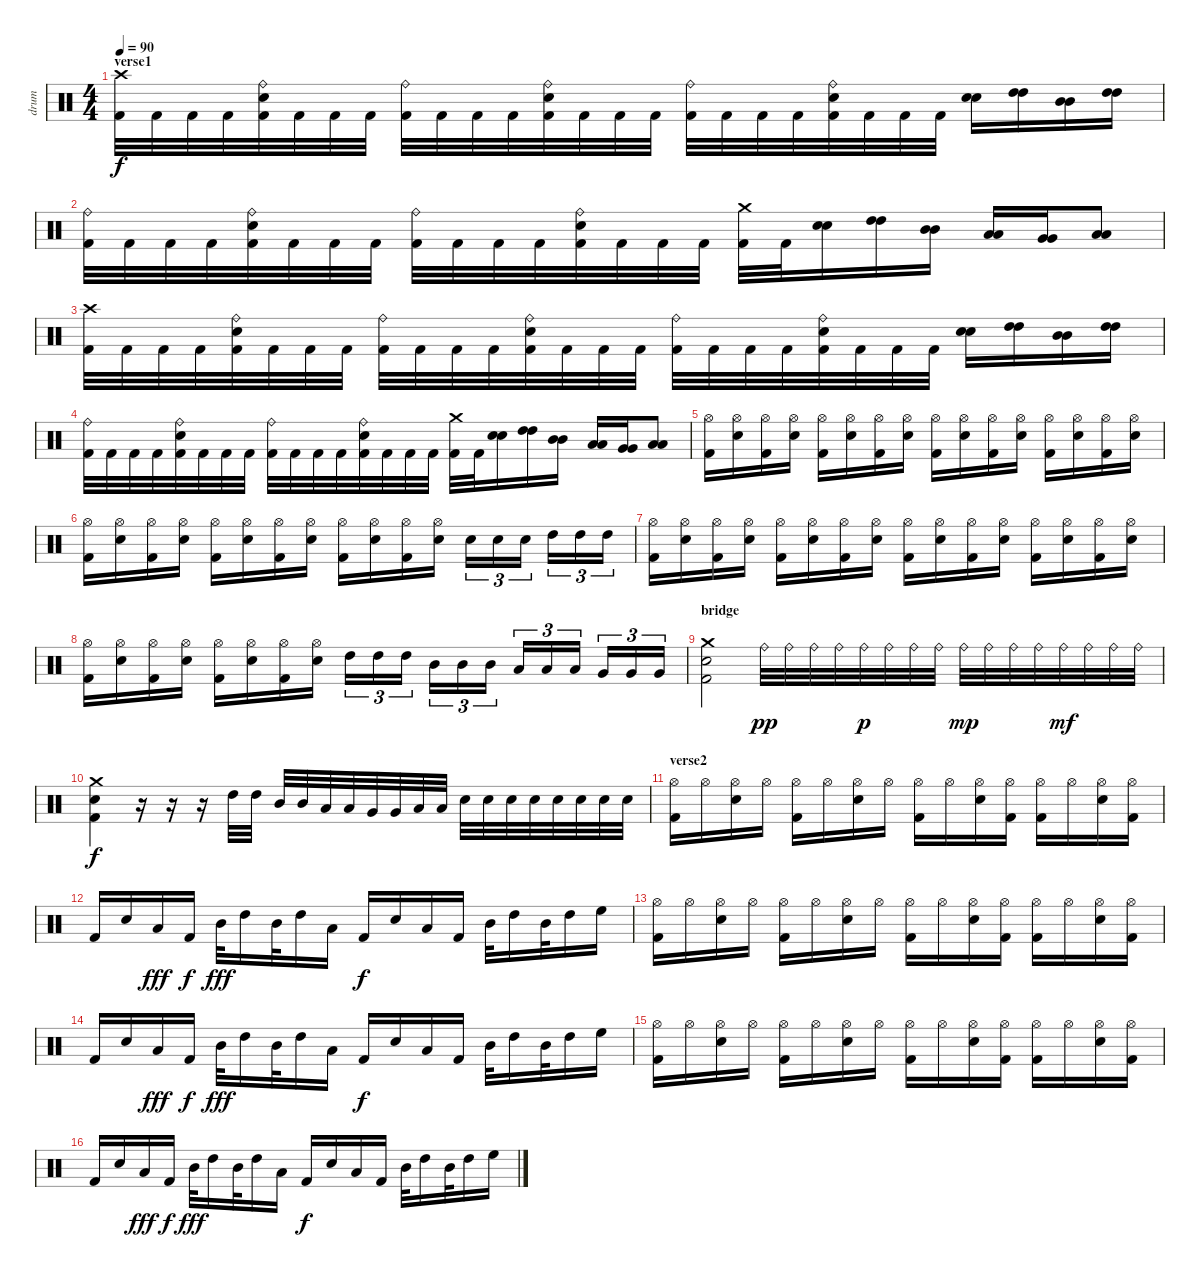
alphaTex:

\track ("drum" "drum") {instrument percussion}
\staff {score}
\articulation defaults
\ts (4 4)
\section ("" "verse1")
\tempo 90
\clef neutral
\ks c
("Crash high (hit)" "Kick (hit) 2").32{dy f} "Kick (hit) 2".32 "Kick (hit) 2".32 "Kick (hit) 2".32 ("Ride (bell)" "Electric Snare (hit)" "Kick (hit) 2").32 "Kick (hit) 2".32 "Kick (hit) 2".32 "Kick (hit) 2".32 ("Ride (bell)" "Kick (hit) 2").32 "Kick (hit) 2".32 "Kick (hit) 2".32 "Kick (hit) 2".32 ("Ride (bell)" "Electric Snare (hit)" "Kick (hit) 2").32 "Kick (hit) 2".32 "Kick (hit) 2".32 "Kick (hit) 2".32 ("Ride (bell)" "Kick (hit) 2").32 "Kick (hit) 2".32 "Kick (hit) 2".32 "Kick (hit) 2".32 ("Ride (bell)" "Electric Snare (hit)" "Kick (hit) 2").32 "Kick (hit) 2".32 "Kick (hit) 2".32 "Kick (hit) 2".32 ("Electric Snare (hit)" "Electric Snare (hit)").16 ("High Tom (hit)" "High Tom (hit)").16 ("Mid Tom (hit)" "Mid Tom (hit)").16 ("High Tom (hit)" "High Tom (hit)").16 |
("Ride (bell)" "Kick (hit) 2").32 "Kick (hit) 2".32 "Kick (hit) 2".32 "Kick (hit) 2".32 ("Ride (bell)" "Electric Snare (hit)" "Kick (hit) 2").32 "Kick (hit) 2".32 "Kick (hit) 2".32 "Kick (hit) 2".32 ("Ride (bell)" "Kick (hit) 2").32 "Kick (hit) 2".32 "Kick (hit) 2".32 "Kick (hit) 2".32 ("Ride (bell)" "Electric Snare (hit)" "Kick (hit) 2").32 "Kick (hit) 2".32 "Kick (hit) 2".32 "Kick (hit) 2".32 ("Crash medium (hit)" "Kick (hit) 2").32 "Kick (hit) 2".32 ("Electric Snare (hit)" "Electric Snare (hit)").16 ("High Tom (hit)" "High Tom (hit)").16 ("Mid Tom (hit)" "Mid Tom (hit)").16 ("Low Tom (hit)" "Low Tom (hit)").16 ("Very Low Tom (hit)" "Very Low Tom (hit)").16 ("Low Floor Tom (hit)" "Low Floor Tom (hit)").8 |
("Crash high (hit)" "Kick (hit) 2").32 "Kick (hit) 2".32 "Kick (hit) 2".32 "Kick (hit) 2".32 ("Ride (bell)" "Electric Snare (hit)" "Kick (hit) 2").32 "Kick (hit) 2".32 "Kick (hit) 2".32 "Kick (hit) 2".32 ("Ride (bell)" "Kick (hit) 2").32 "Kick (hit) 2".32 "Kick (hit) 2".32 "Kick (hit) 2".32 ("Ride (bell)" "Electric Snare (hit)" "Kick (hit) 2").32 "Kick (hit) 2".32 "Kick (hit) 2".32 "Kick (hit) 2".32 ("Ride (bell)" "Kick (hit) 2").32 "Kick (hit) 2".32 "Kick (hit) 2".32 "Kick (hit) 2".32 ("Ride (bell)" "Electric Snare (hit)" "Kick (hit) 2").32 "Kick (hit) 2".32 "Kick (hit) 2".32 "Kick (hit) 2".32 ("Electric Snare (hit)" "Electric Snare (hit)").16 ("High Tom (hit)" "High Tom (hit)").16 ("Mid Tom (hit)" "Mid Tom (hit)").16 ("High Tom (hit)" "High Tom (hit)").16 |
("Ride (bell)" "Kick (hit) 2").32 "Kick (hit) 2".32 "Kick (hit) 2".32 "Kick (hit) 2".32 ("Ride (bell)" "Electric Snare (hit)" "Kick (hit) 2").32 "Kick (hit) 2".32 "Kick (hit) 2".32 "Kick (hit) 2".32 ("Ride (bell)" "Kick (hit) 2").32 "Kick (hit) 2".32 "Kick (hit) 2".32 "Kick (hit) 2".32 ("Ride (bell)" "Electric Snare (hit)" "Kick (hit) 2").32 "Kick (hit) 2".32 "Kick (hit) 2".32 "Kick (hit) 2".32 ("Crash medium (hit)" "Kick (hit) 2").32 "Kick (hit) 2".32 ("Electric Snare (hit)" "Electric Snare (hit)").16 ("High Tom (hit)" "High Tom (hit)").16 ("Mid Tom (hit)" "Mid Tom (hit)").16 ("Low Tom (hit)" "Low Tom (hit)").16 ("Very Low Tom (hit)" "Very Low Tom (hit)").16 ("Low Floor Tom (hit)" "Low Floor Tom (hit)").8 |
("Hi-Hat (open)" "Kick (hit) 2").16 ("Hi-Hat (open)" "Electric Snare (hit)").16 ("Hi-Hat (open)" "Kick (hit) 2").16 ("Hi-Hat (open)" "Electric Snare (hit)").16 ("Hi-Hat (open)" "Kick (hit) 2").16 ("Hi-Hat (open)" "Electric Snare (hit)").16 ("Hi-Hat (open)" "Kick (hit) 2").16 ("Hi-Hat (open)" "Electric Snare (hit)").16 ("Hi-Hat (open)" "Kick (hit) 2").16 ("Hi-Hat (open)" "Electric Snare (hit)").16 ("Hi-Hat (open)" "Kick (hit) 2").16 ("Hi-Hat (open)" "Electric Snare (hit)").16 ("Hi-Hat (open)" "Kick (hit) 2").16 ("Hi-Hat (open)" "Electric Snare (hit)").16 ("Hi-Hat (open)" "Kick (hit) 2").16 ("Hi-Hat (open)" "Electric Snare (hit)").16 |
("Hi-Hat (open)" "Kick (hit) 2").16 ("Hi-Hat (open)" "Electric Snare (hit)").16 ("Hi-Hat (open)" "Kick (hit) 2").16 ("Hi-Hat (open)" "Electric Snare (hit)").16 ("Hi-Hat (open)" "Kick (hit) 2").16 ("Hi-Hat (open)" "Electric Snare (hit)").16 ("Hi-Hat (open)" "Kick (hit) 2").16 ("Hi-Hat (open)" "Electric Snare (hit)").16 ("Hi-Hat (open)" "Kick (hit) 2").16 ("Hi-Hat (open)" "Electric Snare (hit)").16 ("Hi-Hat (open)" "Kick (hit) 2").16 ("Hi-Hat (open)" "Electric Snare (hit)").16 "Electric Snare (hit)".16{tu (3 2)} "Electric Snare (hit)".16{tu (3 2)} "Electric Snare (hit)".16{tu (3 2)} "High Tom (hit)".16{tu (3 2)} "High Tom (hit)".16{tu (3 2)} "High Tom (hit)".16{tu (3 2)} |
("Hi-Hat (open)" "Kick (hit) 2").16 ("Hi-Hat (open)" "Electric Snare (hit)").16 ("Hi-Hat (open)" "Kick (hit) 2").16 ("Hi-Hat (open)" "Electric Snare (hit)").16 ("Hi-Hat (open)" "Kick (hit) 2").16 ("Hi-Hat (open)" "Electric Snare (hit)").16 ("Hi-Hat (open)" "Kick (hit) 2").16 ("Hi-Hat (open)" "Electric Snare (hit)").16 ("Hi-Hat (open)" "Kick (hit) 2").16 ("Hi-Hat (open)" "Electric Snare (hit)").16 ("Hi-Hat (open)" "Kick (hit) 2").16 ("Hi-Hat (open)" "Electric Snare (hit)").16 ("Hi-Hat (open)" "Kick (hit) 2").16 ("Hi-Hat (open)" "Electric Snare (hit)").16 ("Hi-Hat (open)" "Kick (hit) 2").16 ("Hi-Hat (open)" "Electric Snare (hit)").16 |
("Hi-Hat (open)" "Kick (hit) 2").16 ("Hi-Hat (open)" "Electric Snare (hit)").16 ("Hi-Hat (open)" "Kick (hit) 2").16 ("Hi-Hat (open)" "Electric Snare (hit)").16 ("Hi-Hat (open)" "Kick (hit) 2").16 ("Hi-Hat (open)" "Electric Snare (hit)").16 ("Hi-Hat (open)" "Kick (hit) 2").16 ("Hi-Hat (open)" "Electric Snare (hit)").16 "High Tom (hit)".16{tu (3 2)} "High Tom (hit)".16{tu (3 2)} "High Tom (hit)".16{tu (3 2)} "Mid Tom (hit)".16{tu (3 2)} "Mid Tom (hit)".16{tu (3 2)} "Mid Tom (hit)".16{tu (3 2)} "Low Tom (hit)".16{tu (3 2)} "Low Tom (hit)".16{tu (3 2)} "Low Tom (hit)".16{tu (3 2)} "Very Low Tom (hit)".16{tu (3 2)} "Very Low Tom (hit)".16{tu (3 2)} "Very Low Tom (hit)".16{tu (3 2)} |
\section ("" "bridge")
("Crash medium (hit)" "Electric Snare (hit)" "Kick (hit) 2").2 "Ride (bell)".32{dy pp} "Ride (bell)".32 "Ride (bell)".32 "Ride (bell)".32 "Ride (bell)".32{dy p} "Ride (bell)".32 "Ride (bell)".32 "Ride (bell)".32 "Ride (bell)".32{dy mp} "Ride (bell)".32 "Ride (bell)".32 "Ride (bell)".32 "Ride (bell)".32{dy mf} "Ride (bell)".32 "Ride (bell)".32 "Ride (bell)".32 |
("Crash medium (hit)" "Electric Snare (hit)" "Kick (hit) 2").4{dy f} r.16 r.16 r.16 "High Tom (hit)".32 "High Tom (hit)".32 "Mid Tom (hit)".32 "Mid Tom (hit)".32 "Low Tom (hit)".32 "Low Tom (hit)".32 "Very Low Tom (hit)".32 "Very Low Tom (hit)".32 "Low Floor Tom (hit)".32 "Low Floor Tom (hit)".32 "Electric Snare (hit)".32 "Electric Snare (hit)".32 "Electric Snare (hit)".32 "Electric Snare (hit)".32 "Electric Snare (hit)".32 "Electric Snare (hit)".32 "Electric Snare (hit)".32 "Electric Snare (hit)".32 |
\section ("" "verse2")
("Hi-Hat (open)" "Kick (hit) 2").16 "Hi-Hat (open)".16 ("Hi-Hat (open)" "Electric Snare (hit)").16 "Hi-Hat (open)".16 ("Hi-Hat (open)" "Kick (hit) 2").16 "Hi-Hat (open)".16 ("Hi-Hat (open)" "Electric Snare (hit)").16 "Hi-Hat (open)".16 ("Hi-Hat (open)" "Kick (hit) 2").16 "Hi-Hat (open)".16 ("Hi-Hat (open)" "Electric Snare (hit)").16 ("Hi-Hat (open)" "Kick (hit) 2").16 ("Hi-Hat (open)" "Kick (hit) 2").16 "Hi-Hat (open)".16 ("Hi-Hat (open)" "Electric Snare (hit)").16 ("Hi-Hat (open)" "Kick (hit) 2").16 |
"Kick (hit) 2".16 "Electric Snare (hit)".16 "Low Tom (hit)".16{dy fff} "Kick (hit) 2".16{dy f} "Mid Tom (hit)".32{dy fff} "High Tom (hit)".16 "Mid Tom (hit)".32 "High Tom (hit)".16 "Low Tom (hit)".16 "Kick (hit) 2".16{dy f} "Electric Snare (hit)".16 "Low Tom (hit)".16 "Kick (hit) 2".16 "Mid Tom (hit)".32 "High Tom (hit)".16 "Mid Tom (hit)".32 "High Tom (hit)".16 "High Floor Tom (hit)".16 |
("Hi-Hat (open)" "Kick (hit) 2").16 "Hi-Hat (open)".16 ("Hi-Hat (open)" "Electric Snare (hit)").16 "Hi-Hat (open)".16 ("Hi-Hat (open)" "Kick (hit) 2").16 "Hi-Hat (open)".16 ("Hi-Hat (open)" "Electric Snare (hit)").16 "Hi-Hat (open)".16 ("Hi-Hat (open)" "Kick (hit) 2").16 "Hi-Hat (open)".16 ("Hi-Hat (open)" "Electric Snare (hit)").16 ("Hi-Hat (open)" "Kick (hit) 2").16 ("Hi-Hat (open)" "Kick (hit) 2").16 "Hi-Hat (open)".16 ("Hi-Hat (open)" "Electric Snare (hit)").16 ("Hi-Hat (open)" "Kick (hit) 2").16 |
"Kick (hit) 2".16 "Electric Snare (hit)".16 "Low Tom (hit)".16{dy fff} "Kick (hit) 2".16{dy f} "Mid Tom (hit)".32{dy fff} "High Tom (hit)".16 "Mid Tom (hit)".32 "High Tom (hit)".16 "Low Tom (hit)".16 "Kick (hit) 2".16{dy f} "Electric Snare (hit)".16 "Low Tom (hit)".16 "Kick (hit) 2".16 "Mid Tom (hit)".32 "High Tom (hit)".16 "Mid Tom (hit)".32 "High Tom (hit)".16 "High Floor Tom (hit)".16 |
("Hi-Hat (open)" "Kick (hit) 2").16 "Hi-Hat (open)".16 ("Hi-Hat (open)" "Electric Snare (hit)").16 "Hi-Hat (open)".16 ("Hi-Hat (open)" "Kick (hit) 2").16 "Hi-Hat (open)".16 ("Hi-Hat (open)" "Electric Snare (hit)").16 "Hi-Hat (open)".16 ("Hi-Hat (open)" "Kick (hit) 2").16 "Hi-Hat (open)".16 ("Hi-Hat (open)" "Electric Snare (hit)").16 ("Hi-Hat (open)" "Kick (hit) 2").16 ("Hi-Hat (open)" "Kick (hit) 2").16 "Hi-Hat (open)".16 ("Hi-Hat (open)" "Electric Snare (hit)").16 ("Hi-Hat (open)" "Kick (hit) 2").16 |
"Kick (hit) 2".16 "Electric Snare (hit)".16 "Low Tom (hit)".16{dy fff} "Kick (hit) 2".16{dy f} "Mid Tom (hit)".32{dy fff} "High Tom (hit)".16 "Mid Tom (hit)".32 "High Tom (hit)".16 "Low Tom (hit)".16 "Kick (hit) 2".16{dy f} "Electric Snare (hit)".16 "Low Tom (hit)".16 "Kick (hit) 2".16 "Mid Tom (hit)".32 "High Tom (hit)".16 "Mid Tom (hit)".32 "High Tom (hit)".16 "High Floor Tom (hit)".16
